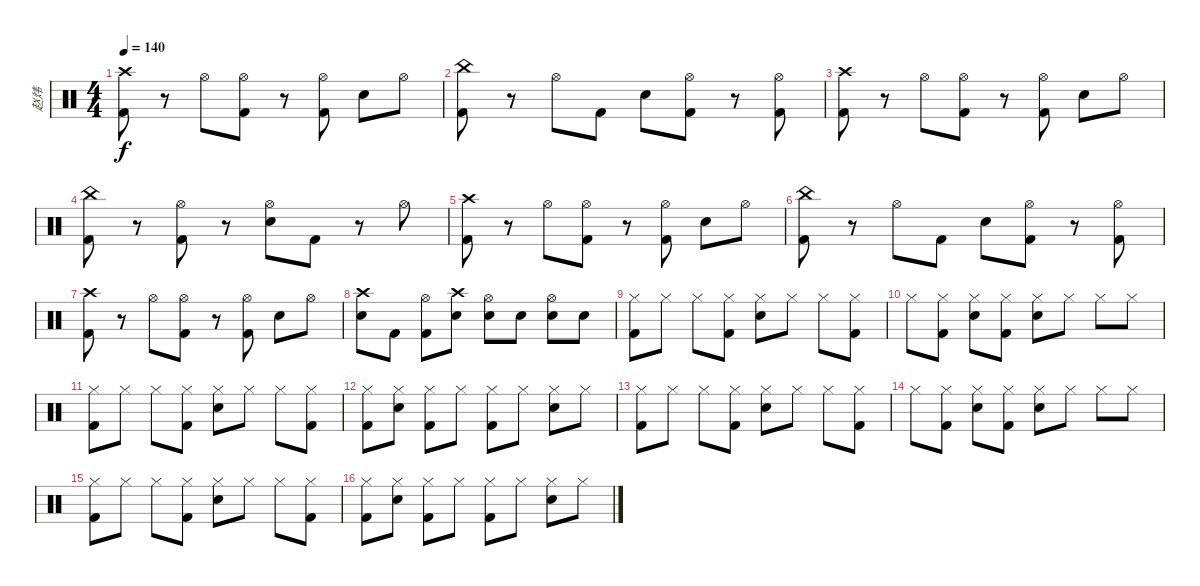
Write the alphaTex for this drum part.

\track ("赵炜" "赵炜") {instrument percussion}
\staff {score}
\articulation defaults
\ts (4 4)
\tempo 140
\clef neutral
\ks c
("Crash high (hit)" "Kick (hit) 2").8{dy f} r.8 "Hi-Hat (open)".8 ("Hi-Hat (open)" "Kick (hit) 2").8 r.8 ("Hi-Hat (open)" "Kick (hit) 2").8 "Snare (hit) 2".8 "Hi-Hat (open)".8 |
("China (hit)" "Kick (hit) 2").8 r.8 "Hi-Hat (open)".8 "Kick (hit) 2".8 "Snare (hit) 2".8 ("Hi-Hat (open)" "Kick (hit) 2").8 r.8 ("Hi-Hat (open)" "Kick (hit) 2").8 |
("Crash high (hit)" "Kick (hit) 2").8 r.8 "Hi-Hat (open)".8 ("Hi-Hat (open)" "Kick (hit) 2").8 r.8 ("Hi-Hat (open)" "Kick (hit) 2").8 "Snare (hit) 2".8 "Hi-Hat (open)".8 |
("China (hit)" "Kick (hit) 2").8 r.8 ("Hi-Hat (open)" "Kick (hit) 2").8 r.8 ("Hi-Hat (open)" "Snare (hit) 2").8 "Kick (hit) 2".8 r.8 "Hi-Hat (open)".8 |
("Crash high (hit)" "Kick (hit) 2").8 r.8 "Hi-Hat (open)".8 ("Hi-Hat (open)" "Kick (hit) 2").8 r.8 ("Hi-Hat (open)" "Kick (hit) 2").8 "Snare (hit) 2".8 "Hi-Hat (open)".8 |
("China (hit)" "Kick (hit) 2").8 r.8 "Hi-Hat (open)".8 "Kick (hit) 2".8 "Snare (hit) 2".8 ("Hi-Hat (open)" "Kick (hit) 2").8 r.8 ("Hi-Hat (open)" "Kick (hit) 2").8 |
("Crash high (hit)" "Kick (hit) 2").8 r.8 "Hi-Hat (open)".8 ("Hi-Hat (open)" "Kick (hit) 2").8 r.8 ("Hi-Hat (open)" "Kick (hit) 2").8 "Snare (hit) 2".8 "Hi-Hat (open)".8 |
("Crash high (hit)" "Snare (hit) 2").8 "Kick (hit) 2".8 ("Hi-Hat (open)" "Kick (hit) 2").8 ("Crash high (hit)" "Snare (hit) 2").8 ("Hi-Hat (open)" "Snare (hit) 2").8 "Snare (hit) 2".8 ("Hi-Hat (open)" "Snare (hit) 2").8 "Snare (hit) 2".8 |
("Hi-Hat (closed)" "Kick (hit) 2").8 "Hi-Hat (closed)".8 "Hi-Hat (closed)".8 ("Hi-Hat (closed)" "Kick (hit) 2").8 ("Hi-Hat (closed)" "Snare (hit) 2").8 "Hi-Hat (closed)".8 "Hi-Hat (closed)".8 ("Hi-Hat (closed)" "Kick (hit) 2").8 |
"Hi-Hat (closed)".8 ("Hi-Hat (closed)" "Kick (hit) 2").8 ("Hi-Hat (closed)" "Snare (hit) 2").8 ("Hi-Hat (closed)" "Kick (hit) 2").8 ("Hi-Hat (closed)" "Snare (hit) 2").8 "Hi-Hat (closed)".8 "Hi-Hat (closed)".8 "Hi-Hat (closed)".8 |
("Hi-Hat (closed)" "Kick (hit) 2").8 "Hi-Hat (closed)".8 "Hi-Hat (closed)".8 ("Hi-Hat (closed)" "Kick (hit) 2").8 ("Hi-Hat (closed)" "Snare (hit) 2").8 "Hi-Hat (closed)".8 "Hi-Hat (closed)".8 ("Hi-Hat (closed)" "Kick (hit) 2").8 |
("Hi-Hat (closed)" "Kick (hit) 2").8 ("Hi-Hat (closed)" "Snare (hit) 2").8 ("Hi-Hat (closed)" "Kick (hit) 2").8 "Hi-Hat (closed)".8 ("Hi-Hat (closed)" "Kick (hit) 2").8 "Hi-Hat (closed)".8 ("Hi-Hat (closed)" "Snare (hit) 2").8 "Hi-Hat (closed)".8 |
("Hi-Hat (closed)" "Kick (hit) 2").8 "Hi-Hat (closed)".8 "Hi-Hat (closed)".8 ("Hi-Hat (closed)" "Kick (hit) 2").8 ("Hi-Hat (closed)" "Snare (hit) 2").8 "Hi-Hat (closed)".8 "Hi-Hat (closed)".8 ("Hi-Hat (closed)" "Kick (hit) 2").8 |
"Hi-Hat (closed)".8 ("Hi-Hat (closed)" "Kick (hit) 2").8 ("Hi-Hat (closed)" "Snare (hit) 2").8 ("Hi-Hat (closed)" "Kick (hit) 2").8 ("Hi-Hat (closed)" "Snare (hit) 2").8 "Hi-Hat (closed)".8 "Hi-Hat (closed)".8 "Hi-Hat (closed)".8 |
("Hi-Hat (closed)" "Kick (hit) 2").8 "Hi-Hat (closed)".8 "Hi-Hat (closed)".8 ("Hi-Hat (closed)" "Kick (hit) 2").8 ("Hi-Hat (closed)" "Snare (hit) 2").8 "Hi-Hat (closed)".8 "Hi-Hat (closed)".8 ("Hi-Hat (closed)" "Kick (hit) 2").8 |
("Hi-Hat (closed)" "Kick (hit) 2").8 ("Hi-Hat (closed)" "Snare (hit) 2").8 ("Hi-Hat (closed)" "Kick (hit) 2").8 "Hi-Hat (closed)".8 ("Hi-Hat (closed)" "Kick (hit) 2").8 "Hi-Hat (closed)".8 ("Hi-Hat (closed)" "Snare (hit) 2").8 "Hi-Hat (closed)".8
